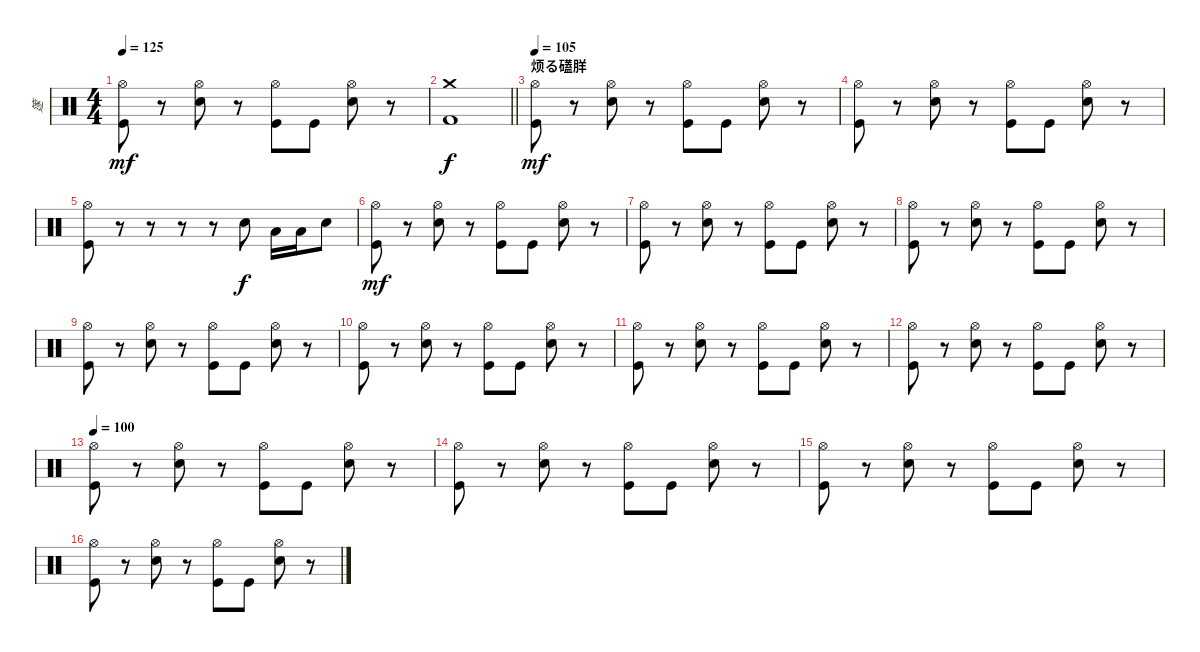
\track ("篴" "篴") {instrument percussion}
\staff {score}
\articulation defaults
\ts (4 4)
\tempo 125
\clef neutral
\ks c
("Hi-Hat (open)" "Kick (hit)").8{dy mf} r.8 ("Hi-Hat (open)" "Snare (hit) 2").8 r.8 ("Hi-Hat (open)" "Kick (hit)").8 "Kick (hit)".8 ("Hi-Hat (open)" "Snare (hit) 2").8 r.8 |
\barLineRight lightlight
("Crash medium (hit)" "Kick (hit) 2").1{dy f} |
\section ("" "烦る礚羘")
\tempo 100
\tempo 105
("Hi-Hat (open)" "Kick (hit)").8{dy mf} r.8 ("Hi-Hat (open)" "Snare (hit) 2").8 r.8 ("Hi-Hat (open)" "Kick (hit)").8 "Kick (hit)".8 ("Hi-Hat (open)" "Snare (hit) 2").8 r.8 |
("Hi-Hat (open)" "Kick (hit)").8 r.8 ("Hi-Hat (open)" "Snare (hit) 2").8 r.8 ("Hi-Hat (open)" "Kick (hit)").8 "Kick (hit)".8 ("Hi-Hat (open)" "Snare (hit) 2").8 r.8 |
("Hi-Hat (open)" "Kick (hit)").8 r.8 r.8 r.8 r.8 "Snare (hit) 2".8{dy f} "Low Tom (hit)".16 "Low Tom (hit)".16 "Snare (hit) 2".8 |
("Hi-Hat (open)" "Kick (hit)").8{dy mf} r.8 ("Hi-Hat (open)" "Snare (hit) 2").8 r.8 ("Hi-Hat (open)" "Kick (hit)").8 "Kick (hit)".8 ("Hi-Hat (open)" "Snare (hit) 2").8 r.8 |
("Hi-Hat (open)" "Kick (hit)").8 r.8 ("Hi-Hat (open)" "Snare (hit) 2").8 r.8 ("Hi-Hat (open)" "Kick (hit)").8 "Kick (hit)".8 ("Hi-Hat (open)" "Snare (hit) 2").8 r.8 |
("Hi-Hat (open)" "Kick (hit)").8 r.8 ("Hi-Hat (open)" "Snare (hit) 2").8 r.8 ("Hi-Hat (open)" "Kick (hit)").8 "Kick (hit)".8 ("Hi-Hat (open)" "Snare (hit) 2").8 r.8 |
("Hi-Hat (open)" "Kick (hit)").8 r.8 ("Hi-Hat (open)" "Snare (hit) 2").8 r.8 ("Hi-Hat (open)" "Kick (hit)").8 "Kick (hit)".8 ("Hi-Hat (open)" "Snare (hit) 2").8 r.8 |
("Hi-Hat (open)" "Kick (hit)").8 r.8 ("Hi-Hat (open)" "Snare (hit) 2").8 r.8 ("Hi-Hat (open)" "Kick (hit)").8 "Kick (hit)".8 ("Hi-Hat (open)" "Snare (hit) 2").8 r.8 |
("Hi-Hat (open)" "Kick (hit)").8 r.8 ("Hi-Hat (open)" "Snare (hit) 2").8 r.8 ("Hi-Hat (open)" "Kick (hit)").8 "Kick (hit)".8 ("Hi-Hat (open)" "Snare (hit) 2").8 r.8 |
("Hi-Hat (open)" "Kick (hit)").8 r.8 ("Hi-Hat (open)" "Snare (hit) 2").8 r.8 ("Hi-Hat (open)" "Kick (hit)").8 "Kick (hit)".8 ("Hi-Hat (open)" "Snare (hit) 2").8 r.8 |
\tempo 100
("Hi-Hat (open)" "Kick (hit)").8 r.8 ("Hi-Hat (open)" "Snare (hit) 2").8 r.8 ("Hi-Hat (open)" "Kick (hit)").8 "Kick (hit)".8 ("Hi-Hat (open)" "Snare (hit) 2").8 r.8 |
("Hi-Hat (open)" "Kick (hit)").8 r.8 ("Hi-Hat (open)" "Snare (hit) 2").8 r.8 ("Hi-Hat (open)" "Kick (hit)").8 "Kick (hit)".8 ("Hi-Hat (open)" "Snare (hit) 2").8 r.8 |
("Hi-Hat (open)" "Kick (hit)").8 r.8 ("Hi-Hat (open)" "Snare (hit) 2").8 r.8 ("Hi-Hat (open)" "Kick (hit)").8 "Kick (hit)".8 ("Hi-Hat (open)" "Snare (hit) 2").8 r.8 |
("Hi-Hat (open)" "Kick (hit)").8 r.8 ("Hi-Hat (open)" "Snare (hit) 2").8 r.8 ("Hi-Hat (open)" "Kick (hit)").8 "Kick (hit)".8 ("Hi-Hat (open)" "Snare (hit) 2").8 r.8
